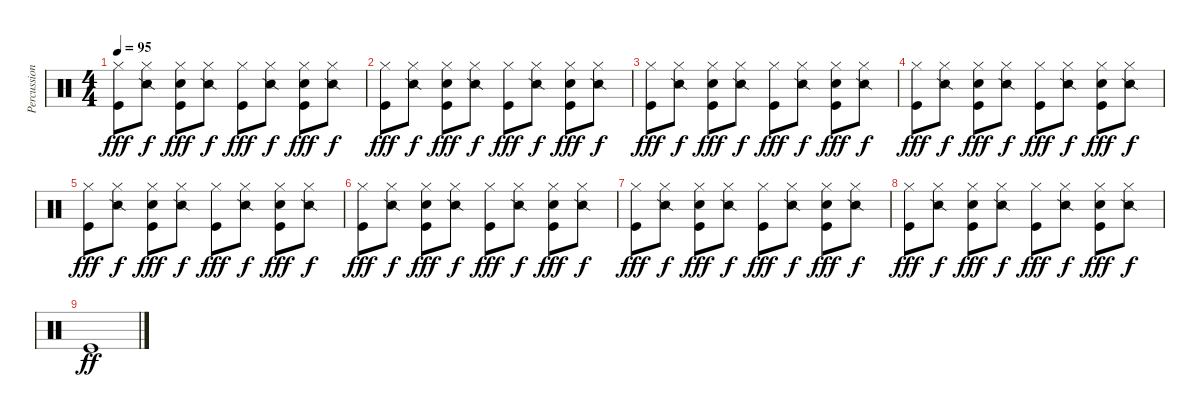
\track ("Percussion" "Percussion") {instrument percussion}
\staff {score}
\articulation defaults
\ts (4 4)
\tempo 95
\clef neutral
\ks c
("Hi-Hat (closed)" "Kick (hit)").8{dy fff} ("Snare (side stick) 2" "Hi-Hat (closed)").8{dy f} ("Hi-Hat (closed)" "Snare (hit) 2" "Kick (hit)").8{dy fff} ("Snare (side stick) 2" "Hi-Hat (closed)").8{dy f} ("Hi-Hat (closed)" "Kick (hit)").8{dy fff} ("Snare (side stick) 2" "Hi-Hat (closed)").8{dy f} ("Hi-Hat (closed)" "Snare (hit) 2" "Kick (hit)").8{dy fff} ("Snare (side stick) 2" "Hi-Hat (closed)").8{dy f} |
("Hi-Hat (closed)" "Kick (hit)").8{dy fff} ("Snare (side stick) 2" "Hi-Hat (closed)").8{dy f} ("Hi-Hat (closed)" "Snare (hit) 2" "Kick (hit)").8{dy fff} ("Snare (side stick) 2" "Hi-Hat (closed)").8{dy f} ("Hi-Hat (closed)" "Kick (hit)").8{dy fff} ("Snare (side stick) 2" "Hi-Hat (closed)").8{dy f} ("Hi-Hat (closed)" "Snare (hit) 2" "Kick (hit)").8{dy fff} ("Snare (side stick) 2" "Hi-Hat (closed)").8{dy f} |
("Hi-Hat (closed)" "Kick (hit)").8{dy fff} ("Snare (side stick) 2" "Hi-Hat (closed)").8{dy f} ("Hi-Hat (closed)" "Snare (hit) 2" "Kick (hit)").8{dy fff} ("Snare (side stick) 2" "Hi-Hat (closed)").8{dy f} ("Hi-Hat (closed)" "Kick (hit)").8{dy fff} ("Snare (side stick) 2" "Hi-Hat (closed)").8{dy f} ("Hi-Hat (closed)" "Snare (hit) 2" "Kick (hit)").8{dy fff} ("Snare (side stick) 2" "Hi-Hat (closed)").8{dy f} |
("Hi-Hat (closed)" "Kick (hit)").8{dy fff} ("Snare (side stick) 2" "Hi-Hat (closed)").8{dy f} ("Hi-Hat (closed)" "Snare (hit) 2" "Kick (hit)").8{dy fff} ("Snare (side stick) 2" "Hi-Hat (closed)").8{dy f} ("Hi-Hat (closed)" "Kick (hit)").8{dy fff} ("Snare (side stick) 2" "Hi-Hat (closed)").8{dy f} ("Hi-Hat (closed)" "Snare (hit) 2" "Kick (hit)").8{dy fff} ("Snare (side stick) 2" "Hi-Hat (closed)").8{dy f} |
("Hi-Hat (closed)" "Kick (hit)").8{dy fff} ("Snare (side stick) 2" "Hi-Hat (closed)").8{dy f} ("Hi-Hat (closed)" "Snare (hit) 2" "Kick (hit)").8{dy fff} ("Snare (side stick) 2" "Hi-Hat (closed)").8{dy f} ("Hi-Hat (closed)" "Kick (hit)").8{dy fff} ("Snare (side stick) 2" "Hi-Hat (closed)").8{dy f} ("Hi-Hat (closed)" "Snare (hit) 2" "Kick (hit)").8{dy fff} ("Snare (side stick) 2" "Hi-Hat (closed)").8{dy f} |
("Hi-Hat (closed)" "Kick (hit)").8{dy fff} ("Snare (side stick) 2" "Hi-Hat (closed)").8{dy f} ("Hi-Hat (closed)" "Snare (hit) 2" "Kick (hit)").8{dy fff} ("Snare (side stick) 2" "Hi-Hat (closed)").8{dy f} ("Hi-Hat (closed)" "Kick (hit)").8{dy fff} ("Snare (side stick) 2" "Hi-Hat (closed)").8{dy f} ("Hi-Hat (closed)" "Snare (hit) 2" "Kick (hit)").8{dy fff} ("Snare (side stick) 2" "Hi-Hat (closed)").8{dy f} |
("Hi-Hat (closed)" "Kick (hit)").8{dy fff} ("Snare (side stick) 2" "Hi-Hat (closed)").8{dy f} ("Hi-Hat (closed)" "Snare (hit) 2" "Kick (hit)").8{dy fff} ("Snare (side stick) 2" "Hi-Hat (closed)").8{dy f} ("Hi-Hat (closed)" "Kick (hit)").8{dy fff} ("Snare (side stick) 2" "Hi-Hat (closed)").8{dy f} ("Hi-Hat (closed)" "Snare (hit) 2" "Kick (hit)").8{dy fff} ("Snare (side stick) 2" "Hi-Hat (closed)").8{dy f} |
("Hi-Hat (closed)" "Kick (hit)").8{dy fff} ("Snare (side stick) 2" "Hi-Hat (closed)").8{dy f} ("Hi-Hat (closed)" "Snare (hit) 2" "Kick (hit)").8{dy fff} ("Snare (side stick) 2" "Hi-Hat (closed)").8{dy f} ("Hi-Hat (closed)" "Kick (hit)").8{dy fff} ("Snare (side stick) 2" "Hi-Hat (closed)").8{dy f} ("Hi-Hat (closed)" "Snare (hit) 2" "Kick (hit)").8{dy fff} ("Snare (side stick) 2" "Hi-Hat (closed)").8{dy f} |
"Kick (hit)".1{dy ff}
